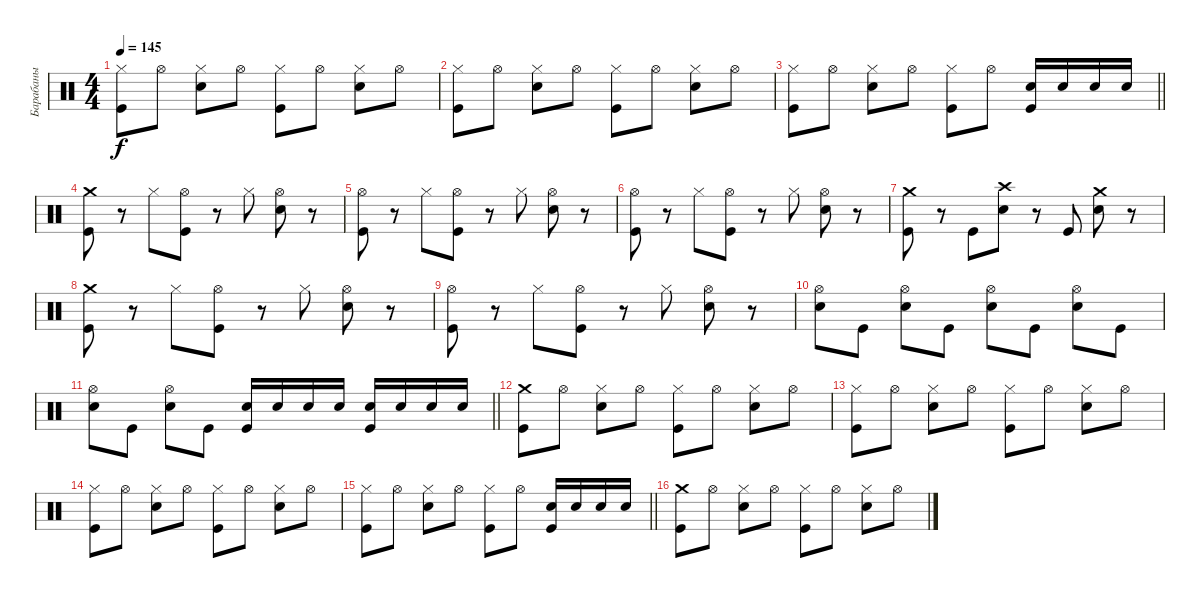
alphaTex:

\track ("Барабаны" "Барабаны") {instrument percussion}
\staff {score}
\articulation defaults
\ts (4 4)
\tempo 145
\clef neutral
\ks c
("Hi-Hat (closed)" "Kick (hit)").8{dy f} "Hi-Hat (open)".8 ("Hi-Hat (closed)" "Electric Snare (hit)").8 "Hi-Hat (open)".8 ("Hi-Hat (closed)" "Kick (hit)").8 "Hi-Hat (open)".8 ("Hi-Hat (closed)" "Electric Snare (hit)").8 "Hi-Hat (open)".8 |
("Hi-Hat (closed)" "Kick (hit)").8 "Hi-Hat (open)".8 ("Hi-Hat (closed)" "Electric Snare (hit)").8 "Hi-Hat (open)".8 ("Hi-Hat (closed)" "Kick (hit)").8 "Hi-Hat (open)".8 ("Hi-Hat (closed)" "Electric Snare (hit)").8 "Hi-Hat (open)".8 |
\barLineRight lightlight
("Hi-Hat (closed)" "Kick (hit)").8 "Hi-Hat (open)".8 ("Hi-Hat (closed)" "Electric Snare (hit)").8 "Hi-Hat (open)".8 ("Hi-Hat (closed)" "Kick (hit)").8 "Hi-Hat (open)".8 ("Electric Snare (hit)" "Kick (hit)").16 "Electric Snare (hit)".16 "Electric Snare (hit)".16 "Electric Snare (hit)".16 |
("Crash medium (hit)" "Kick (hit)").8 r.8 "Hi-Hat (closed)".8 ("Hi-Hat (open)" "Kick (hit)").8 r.8 "Hi-Hat (closed)".8 ("Hi-Hat (open)" "Electric Snare (hit)").8 r.8 |
("Hi-Hat (open)" "Kick (hit)").8 r.8 "Hi-Hat (closed)".8 ("Hi-Hat (open)" "Kick (hit)").8 r.8 "Hi-Hat (closed)".8 ("Hi-Hat (open)" "Electric Snare (hit)").8 r.8 |
("Hi-Hat (open)" "Kick (hit)").8 r.8 "Hi-Hat (closed)".8 ("Hi-Hat (open)" "Kick (hit)").8 r.8 "Hi-Hat (closed)".8 ("Hi-Hat (open)" "Electric Snare (hit)").8 r.8 |
("Crash medium (hit)" "Kick (hit)").8 r.8 "Kick (hit)".8 ("Crash high (hit)" "Electric Snare (hit)").8 r.8 "Kick (hit)".8 ("Crash medium (hit)" "Electric Snare (hit)").8 r.8 |
("Crash medium (hit)" "Kick (hit)").8 r.8 "Hi-Hat (closed)".8 ("Hi-Hat (open)" "Kick (hit)").8 r.8 "Hi-Hat (closed)".8 ("Hi-Hat (open)" "Electric Snare (hit)").8 r.8 |
("Hi-Hat (open)" "Kick (hit)").8 r.8 "Hi-Hat (closed)".8 ("Hi-Hat (open)" "Kick (hit)").8 r.8 "Hi-Hat (closed)".8 ("Hi-Hat (open)" "Electric Snare (hit)").8 r.8 |
("Hi-Hat (open)" "Electric Snare (hit)").8 "Kick (hit)".8 ("Hi-Hat (open)" "Electric Snare (hit)").8 "Kick (hit)".8 ("Hi-Hat (open)" "Electric Snare (hit)").8 "Kick (hit)".8 ("Hi-Hat (open)" "Electric Snare (hit)").8 "Kick (hit)".8 |
\barLineRight lightlight
("Hi-Hat (open)" "Electric Snare (hit)").8 "Kick (hit)".8 ("Hi-Hat (open)" "Electric Snare (hit)").8 "Kick (hit)".8 ("Electric Snare (hit)" "Kick (hit)").16 "Electric Snare (hit)".16 "Electric Snare (hit)".16 "Electric Snare (hit)".16 ("Electric Snare (hit)" "Kick (hit)").16 "Electric Snare (hit)".16 "Electric Snare (hit)".16 "Electric Snare (hit)".16 |
("Crash medium (hit)" "Kick (hit)").8 "Hi-Hat (open)".8 ("Hi-Hat (closed)" "Electric Snare (hit)").8 "Hi-Hat (open)".8 ("Hi-Hat (closed)" "Kick (hit)").8 "Hi-Hat (open)".8 ("Hi-Hat (closed)" "Electric Snare (hit)").8 "Hi-Hat (open)".8 |
("Hi-Hat (closed)" "Kick (hit)").8 "Hi-Hat (open)".8 ("Hi-Hat (closed)" "Electric Snare (hit)").8 "Hi-Hat (open)".8 ("Hi-Hat (closed)" "Kick (hit)").8 "Hi-Hat (open)".8 ("Hi-Hat (closed)" "Electric Snare (hit)").8 "Hi-Hat (open)".8 |
("Hi-Hat (closed)" "Kick (hit)").8 "Hi-Hat (open)".8 ("Hi-Hat (closed)" "Electric Snare (hit)").8 "Hi-Hat (open)".8 ("Hi-Hat (closed)" "Kick (hit)").8 "Hi-Hat (open)".8 ("Hi-Hat (closed)" "Electric Snare (hit)").8 "Hi-Hat (open)".8 |
\barLineRight lightlight
("Hi-Hat (closed)" "Kick (hit)").8 "Hi-Hat (open)".8 ("Hi-Hat (closed)" "Electric Snare (hit)").8 "Hi-Hat (open)".8 ("Hi-Hat (closed)" "Kick (hit)").8 "Hi-Hat (open)".8 ("Electric Snare (hit)" "Kick (hit)").16 "Electric Snare (hit)".16 "Electric Snare (hit)".16 "Electric Snare (hit)".16 |
("Crash medium (hit)" "Kick (hit)").8 "Hi-Hat (open)".8 ("Hi-Hat (closed)" "Electric Snare (hit)").8 "Hi-Hat (open)".8 ("Hi-Hat (closed)" "Kick (hit)").8 "Hi-Hat (open)".8 ("Hi-Hat (closed)" "Electric Snare (hit)").8 "Hi-Hat (open)".8
